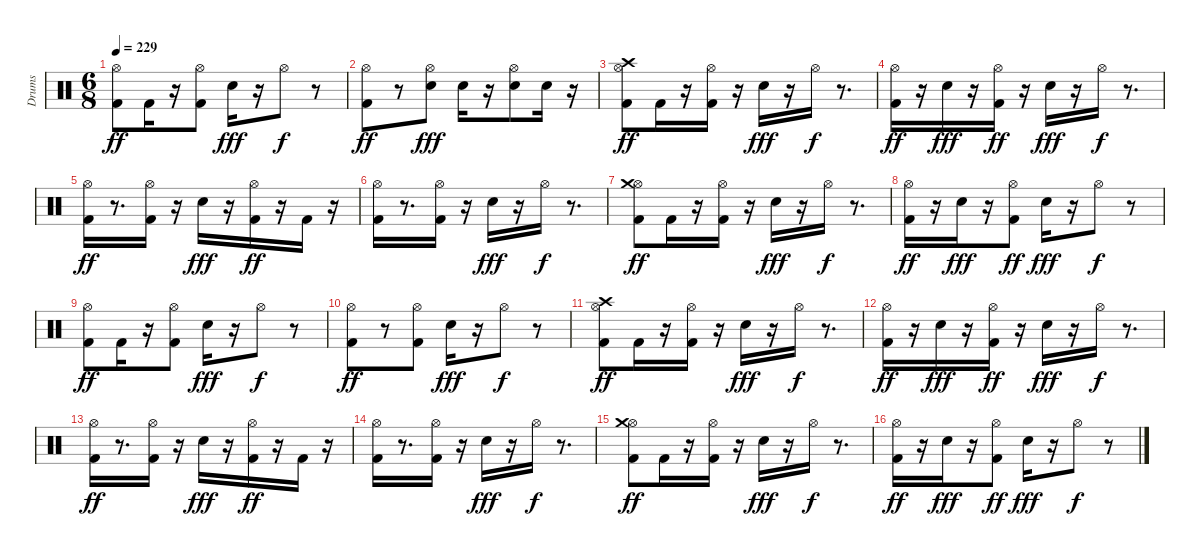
\track ("Drums" "Drums") {instrument percussion}
\staff {score}
\articulation defaults
\ts (6 8)
\tempo 229
\clef neutral
\ks c
("Kick (hit) 2" "Hi-Hat (open)").8{dy ff} "Kick (hit) 2".16 r.16 ("Kick (hit) 2" "Hi-Hat (open)").8 "Snare (hit) 2".16{dy fff} r.16 "Hi-Hat (open)".8{dy f} r.8 |
("Kick (hit) 2" "Hi-Hat (open)").8{dy ff} r.8 ("Snare (hit) 2" "Hi-Hat (open)").8{dy fff} "Snare (hit) 2".16 r.16 ("Snare (hit) 2" "Hi-Hat (open)").8 "Snare (hit) 2".16 r.16 |
("Kick (hit) 2" "Hi-Hat (open)" "Crash high (hit)").8{dy ff} "Kick (hit) 2".16 r.16 ("Kick (hit) 2" "Hi-Hat (open)").16 r.16 "Snare (hit) 2".16{dy fff} r.16 "Hi-Hat (open)".16{dy f} r.8{d} |
("Kick (hit) 2" "Hi-Hat (open)").16{dy ff} r.16 "Snare (hit) 2".16{dy fff} r.16 ("Kick (hit) 2" "Hi-Hat (open)").16{dy ff} r.16 "Snare (hit) 2".16{dy fff} r.16 "Hi-Hat (open)".16{dy f} r.8{d} |
("Kick (hit) 2" "Hi-Hat (open)").16{dy ff} r.8{d} ("Kick (hit) 2" "Hi-Hat (open)").16 r.16 "Snare (hit) 2".16{dy fff} r.16 ("Kick (hit) 2" "Hi-Hat (open)").16{dy ff} r.16 "Kick (hit) 2".16 r.16 |
("Kick (hit) 2" "Hi-Hat (open)").16 r.8{d} ("Kick (hit) 2" "Hi-Hat (open)").16 r.16 "Snare (hit) 2".16{dy fff} r.16 "Hi-Hat (open)".16{dy f} r.8{d} |
("Kick (hit) 2" "Hi-Hat (open)" "Crash medium (hit)").8{dy ff} "Kick (hit) 2".16 r.16 ("Kick (hit) 2" "Hi-Hat (open)").16 r.16 "Snare (hit) 2".16{dy fff} r.16 "Hi-Hat (open)".16{dy f} r.8{d} |
("Kick (hit) 2" "Hi-Hat (open)").16{dy ff} r.16 "Snare (hit) 2".16{dy fff} r.16 ("Kick (hit) 2" "Hi-Hat (open)").8{dy ff} "Snare (hit) 2".16{dy fff} r.16 "Hi-Hat (open)".8{dy f} r.8 |
("Kick (hit) 2" "Hi-Hat (open)").8{dy ff} "Kick (hit) 2".16 r.16 ("Kick (hit) 2" "Hi-Hat (open)").8 "Snare (hit) 2".16{dy fff} r.16 "Hi-Hat (open)".8{dy f} r.8 |
("Kick (hit) 2" "Hi-Hat (open)").8{dy ff} r.8 ("Kick (hit) 2" "Hi-Hat (open)").8 "Snare (hit) 2".16{dy fff} r.16 "Hi-Hat (open)".8{dy f} r.8 |
("Kick (hit) 2" "Hi-Hat (open)" "Crash high (hit)").8{dy ff} "Kick (hit) 2".16 r.16 ("Kick (hit) 2" "Hi-Hat (open)").16 r.16 "Snare (hit) 2".16{dy fff} r.16 "Hi-Hat (open)".16{dy f} r.8{d} |
("Kick (hit) 2" "Hi-Hat (open)").16{dy ff} r.16 "Snare (hit) 2".16{dy fff} r.16 ("Kick (hit) 2" "Hi-Hat (open)").16{dy ff} r.16 "Snare (hit) 2".16{dy fff} r.16 "Hi-Hat (open)".16{dy f} r.8{d} |
("Kick (hit) 2" "Hi-Hat (open)").16{dy ff} r.8{d} ("Kick (hit) 2" "Hi-Hat (open)").16 r.16 "Snare (hit) 2".16{dy fff} r.16 ("Kick (hit) 2" "Hi-Hat (open)").16{dy ff} r.16 "Kick (hit) 2".16 r.16 |
("Kick (hit) 2" "Hi-Hat (open)").16 r.8{d} ("Kick (hit) 2" "Hi-Hat (open)").16 r.16 "Snare (hit) 2".16{dy fff} r.16 "Hi-Hat (open)".16{dy f} r.8{d} |
("Kick (hit) 2" "Hi-Hat (open)" "Crash medium (hit)").8{dy ff} "Kick (hit) 2".16 r.16 ("Kick (hit) 2" "Hi-Hat (open)").16 r.16 "Snare (hit) 2".16{dy fff} r.16 "Hi-Hat (open)".16{dy f} r.8{d} |
("Kick (hit) 2" "Hi-Hat (open)").16{dy ff} r.16 "Snare (hit) 2".16{dy fff} r.16 ("Kick (hit) 2" "Hi-Hat (open)").8{dy ff} "Snare (hit) 2".16{dy fff} r.16 "Hi-Hat (open)".8{dy f} r.8
